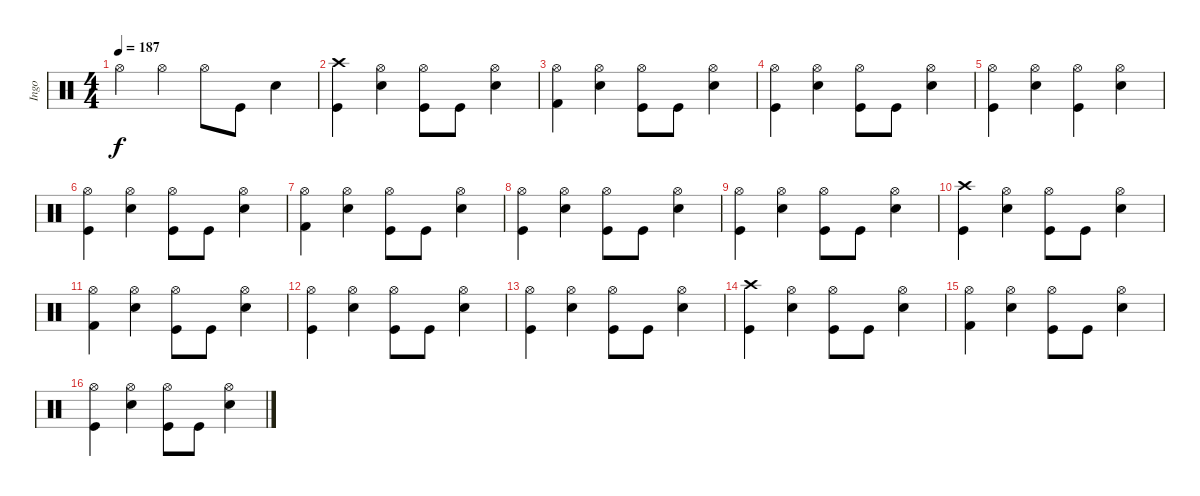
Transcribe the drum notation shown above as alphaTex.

\track ("Ingo" "Ingo") {instrument percussion}
\staff {score}
\articulation defaults
\ts (4 4)
\tempo 187
\clef neutral
\ks c "Hi-Hat (open)".4{dy f} "Hi-Hat (open)".4 "Hi-Hat (open)".8 "Kick (hit)".8 "Snare (hit) 2".4
|
("Crash high (hit)" "Kick (hit)").4 ("Hi-Hat (open)" "Snare (hit) 2").4 ("Hi-Hat (open)" "Kick (hit)").8 "Kick (hit)".8 ("Hi-Hat (open)" "Snare (hit) 2").4 |
("Hi-Hat (open)" "Kick (hit) 2").4 ("Hi-Hat (open)" "Snare (hit) 2").4 ("Hi-Hat (open)" "Kick (hit)").8 "Kick (hit)".8 ("Hi-Hat (open)" "Snare (hit) 2").4 |
("Hi-Hat (open)" "Kick (hit)").4 ("Hi-Hat (open)" "Snare (hit) 2").4 ("Hi-Hat (open)" "Kick (hit)").8 "Kick (hit)".8 ("Hi-Hat (open)" "Snare (hit) 2").4 |
("Hi-Hat (open)" "Kick (hit)").4 ("Hi-Hat (open)" "Snare (hit) 2").4 ("Hi-Hat (open)" "Kick (hit)").4 ("Hi-Hat (open)" "Snare (hit) 2").4 |
("Hi-Hat (open)" "Kick (hit)").4 ("Hi-Hat (open)" "Snare (hit) 2").4 ("Hi-Hat (open)" "Kick (hit)").8 "Kick (hit)".8 ("Hi-Hat (open)" "Snare (hit) 2").4 |
("Hi-Hat (open)" "Kick (hit) 2").4 ("Hi-Hat (open)" "Snare (hit) 2").4 ("Hi-Hat (open)" "Kick (hit)").8 "Kick (hit)".8 ("Hi-Hat (open)" "Snare (hit) 2").4 |
("Hi-Hat (open)" "Kick (hit)").4 ("Hi-Hat (open)" "Snare (hit) 2").4 ("Hi-Hat (open)" "Kick (hit)").8 "Kick (hit)".8 ("Hi-Hat (open)" "Snare (hit) 2").4 |
("Hi-Hat (open)" "Kick (hit)").4 ("Hi-Hat (open)" "Snare (hit) 2").4 ("Hi-Hat (open)" "Kick (hit)").8 "Kick (hit)".8 ("Hi-Hat (open)" "Snare (hit) 2").4 |
("Crash high (hit)" "Kick (hit)").4 ("Hi-Hat (open)" "Snare (hit) 2").4 ("Hi-Hat (open)" "Kick (hit)").8 "Kick (hit)".8 ("Hi-Hat (open)" "Snare (hit) 2").4 |
("Hi-Hat (open)" "Kick (hit) 2").4 ("Hi-Hat (open)" "Snare (hit) 2").4 ("Hi-Hat (open)" "Kick (hit)").8 "Kick (hit)".8 ("Hi-Hat (open)" "Snare (hit) 2").4 |
("Hi-Hat (open)" "Kick (hit)").4 ("Hi-Hat (open)" "Snare (hit) 2").4 ("Hi-Hat (open)" "Kick (hit)").8 "Kick (hit)".8 ("Hi-Hat (open)" "Snare (hit) 2").4 |
("Hi-Hat (open)" "Kick (hit)").4 ("Hi-Hat (open)" "Snare (hit) 2").4 ("Hi-Hat (open)" "Kick (hit)").8 "Kick (hit)".8 ("Hi-Hat (open)" "Snare (hit) 2").4 |
("Crash high (hit)" "Kick (hit)").4 ("Hi-Hat (open)" "Snare (hit) 2").4 ("Hi-Hat (open)" "Kick (hit)").8 "Kick (hit)".8 ("Hi-Hat (open)" "Snare (hit) 2").4 |
("Hi-Hat (open)" "Kick (hit) 2").4 ("Hi-Hat (open)" "Snare (hit) 2").4 ("Hi-Hat (open)" "Kick (hit)").8 "Kick (hit)".8 ("Hi-Hat (open)" "Snare (hit) 2").4 |
("Hi-Hat (open)" "Kick (hit)").4 ("Hi-Hat (open)" "Snare (hit) 2").4 ("Hi-Hat (open)" "Kick (hit)").8 "Kick (hit)".8 ("Hi-Hat (open)" "Snare (hit) 2").4
